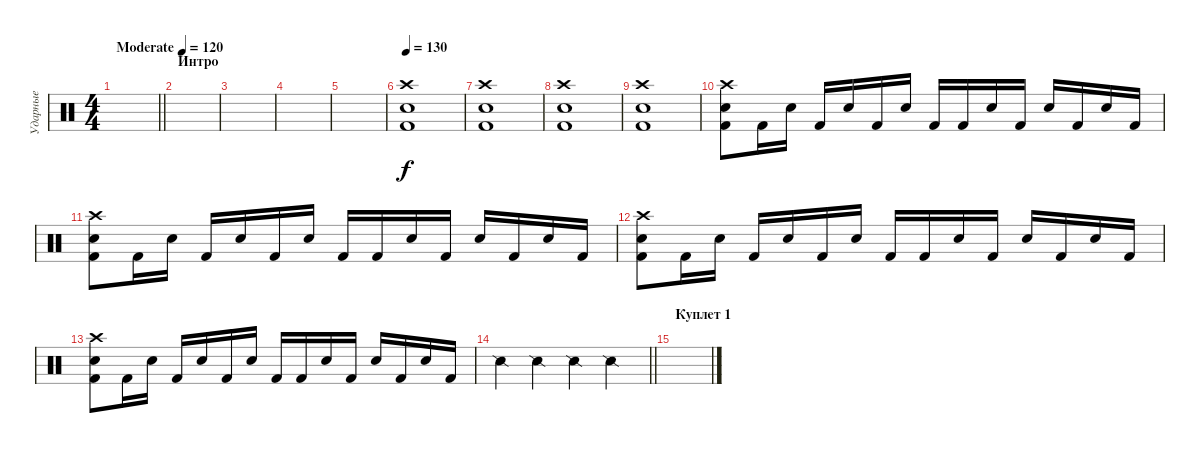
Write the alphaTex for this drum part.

\track ("Ударные" "Ударные") {instrument percussion}
\staff {score}
\articulation defaults
\ts (4 4)
\tempo (120 "Moderate")
\clef neutral
\barLineRight lightlight
\ks c
|
\section ("" "Интро")
|
|
|
|
\tempo 130
("Crash high (hit)" "Kick (hit) 2" "Snare (hit) 2").1 |
("Crash high (hit)" "Kick (hit) 2" "Snare (hit) 2").1 |
("Crash high (hit)" "Kick (hit) 2" "Snare (hit) 2").1 |
("Crash high (hit)" "Kick (hit) 2" "Snare (hit) 2").1 |
("Crash high (hit)" "Kick (hit) 2" "Snare (hit) 2").8 "Kick (hit) 2".16 "Snare (hit) 2".16 "Kick (hit) 2".16 "Snare (hit) 2".16 "Kick (hit) 2".16 "Snare (hit) 2".16 "Kick (hit) 2".16 "Kick (hit) 2".16 "Snare (hit) 2".16 "Kick (hit) 2".16 "Snare (hit) 2".16 "Kick (hit) 2".16 "Snare (hit) 2".16 "Kick (hit) 2".16 |
("Crash high (hit)" "Kick (hit) 2" "Snare (hit) 2").8 "Kick (hit) 2".16 "Snare (hit) 2".16 "Kick (hit) 2".16 "Snare (hit) 2".16 "Kick (hit) 2".16 "Snare (hit) 2".16 "Kick (hit) 2".16 "Kick (hit) 2".16 "Snare (hit) 2".16 "Kick (hit) 2".16 "Snare (hit) 2".16 "Kick (hit) 2".16 "Snare (hit) 2".16 "Kick (hit) 2".16 |
("Crash high (hit)" "Kick (hit) 2" "Snare (hit) 2").8 "Kick (hit) 2".16 "Snare (hit) 2".16 "Kick (hit) 2".16 "Snare (hit) 2".16 "Kick (hit) 2".16 "Snare (hit) 2".16 "Kick (hit) 2".16 "Kick (hit) 2".16 "Snare (hit) 2".16 "Kick (hit) 2".16 "Snare (hit) 2".16 "Kick (hit) 2".16 "Snare (hit) 2".16 "Kick (hit) 2".16 |
("Crash high (hit)" "Kick (hit) 2" "Snare (hit) 2").8 "Kick (hit) 2".16 "Snare (hit) 2".16 "Kick (hit) 2".16 "Snare (hit) 2".16 "Kick (hit) 2".16 "Snare (hit) 2".16 "Kick (hit) 2".16 "Kick (hit) 2".16 "Snare (hit) 2".16 "Kick (hit) 2".16 "Snare (hit) 2".16 "Kick (hit) 2".16 "Snare (hit) 2".16 "Kick (hit) 2".16 |
\barLineRight lightlight "Snare (side stick) 2".4 "Snare (side stick) 2".4 "Snare (side stick) 2".4 "Snare (side stick) 2".4
|
\section ("" "Куплет 1")
